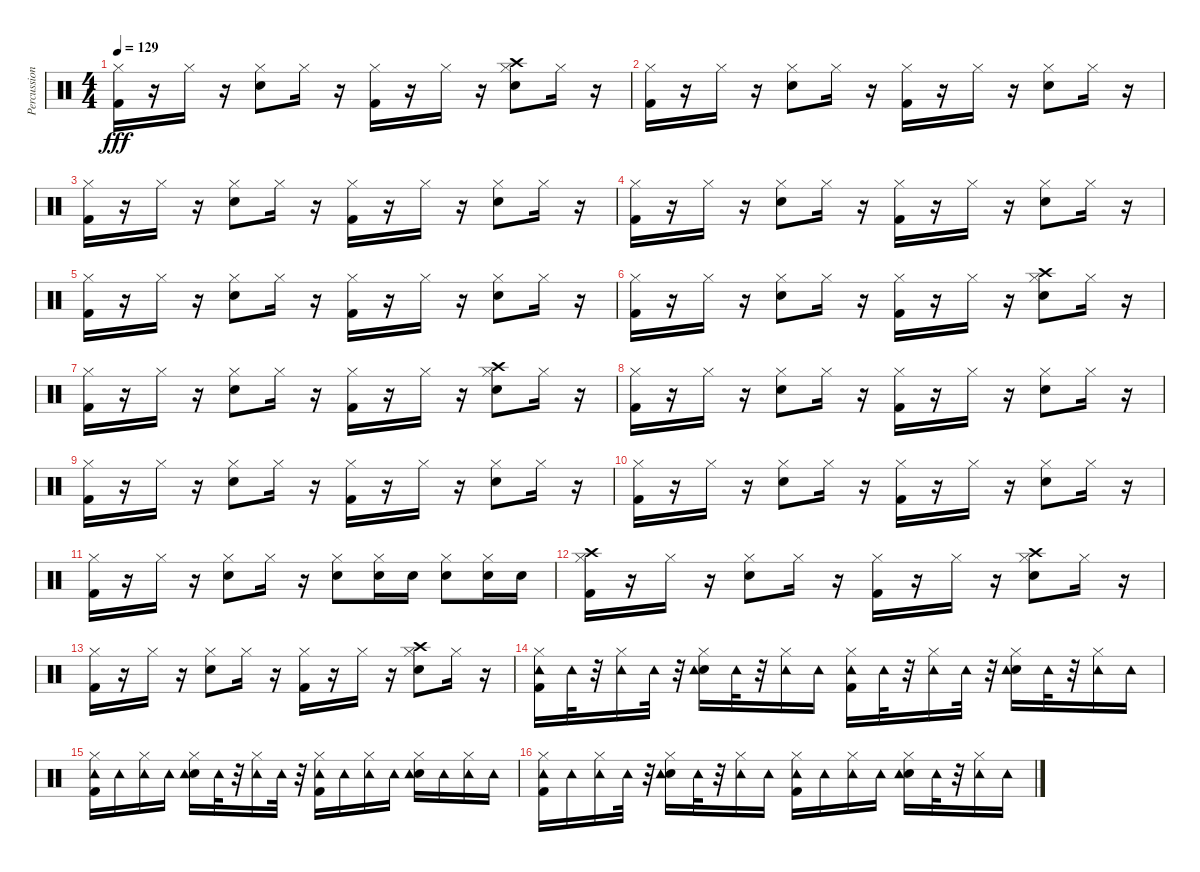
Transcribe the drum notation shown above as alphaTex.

\track ("Percussion" "Percussion") {instrument percussion}
\staff {score}
\articulation defaults
\ts (4 4)
\tempo 129
\clef neutral
\ks c
("Kick (hit) 2" "Hi-Hat (closed)").16{dy fff} r.16 "Hi-Hat (closed)".16 r.16 ("Snare (hit) 2" "Hi-Hat (closed)").8 "Hi-Hat (closed)".16 r.16 ("Kick (hit) 2" "Hi-Hat (closed)").16 r.16 "Hi-Hat (closed)".16 r.16 ("Snare (hit) 2" "Hi-Hat (closed)" "Crash high (hit)").8 "Hi-Hat (closed)".16 r.16 |
("Kick (hit) 2" "Hi-Hat (closed)").16 r.16 "Hi-Hat (closed)".16 r.16 ("Snare (hit) 2" "Hi-Hat (closed)").8 "Hi-Hat (closed)".16 r.16 ("Kick (hit) 2" "Hi-Hat (closed)").16 r.16 "Hi-Hat (closed)".16 r.16 ("Snare (hit) 2" "Hi-Hat (closed)").8 "Hi-Hat (closed)".16 r.16 |
("Kick (hit) 2" "Hi-Hat (closed)").16 r.16 "Hi-Hat (closed)".16 r.16 ("Snare (hit) 2" "Hi-Hat (closed)").8 "Hi-Hat (closed)".16 r.16 ("Kick (hit) 2" "Hi-Hat (closed)").16 r.16 "Hi-Hat (closed)".16 r.16 ("Snare (hit) 2" "Hi-Hat (closed)").8 "Hi-Hat (closed)".16 r.16 |
("Kick (hit) 2" "Hi-Hat (closed)").16 r.16 "Hi-Hat (closed)".16 r.16 ("Snare (hit) 2" "Hi-Hat (closed)").8 "Hi-Hat (closed)".16 r.16 ("Kick (hit) 2" "Hi-Hat (closed)").16 r.16 "Hi-Hat (closed)".16 r.16 ("Snare (hit) 2" "Hi-Hat (closed)").8 "Hi-Hat (closed)".16 r.16 |
("Kick (hit) 2" "Hi-Hat (closed)").16 r.16 "Hi-Hat (closed)".16 r.16 ("Snare (hit) 2" "Hi-Hat (closed)").8 "Hi-Hat (closed)".16 r.16 ("Kick (hit) 2" "Hi-Hat (closed)").16 r.16 "Hi-Hat (closed)".16 r.16 ("Snare (hit) 2" "Hi-Hat (closed)").8 "Hi-Hat (closed)".16 r.16 |
("Kick (hit) 2" "Hi-Hat (closed)").16 r.16 "Hi-Hat (closed)".16 r.16 ("Snare (hit) 2" "Hi-Hat (closed)").8 "Hi-Hat (closed)".16 r.16 ("Kick (hit) 2" "Hi-Hat (closed)").16 r.16 "Hi-Hat (closed)".16 r.16 ("Snare (hit) 2" "Hi-Hat (closed)" "Crash high (hit)").8 "Hi-Hat (closed)".16 r.16 |
("Kick (hit) 2" "Hi-Hat (closed)").16 r.16 "Hi-Hat (closed)".16 r.16 ("Snare (hit) 2" "Hi-Hat (closed)").8 "Hi-Hat (closed)".16 r.16 ("Kick (hit) 2" "Hi-Hat (closed)").16 r.16 "Hi-Hat (closed)".16 r.16 ("Snare (hit) 2" "Hi-Hat (closed)" "Crash high (hit)").8 "Hi-Hat (closed)".16 r.16 |
("Kick (hit) 2" "Hi-Hat (closed)").16 r.16 "Hi-Hat (closed)".16 r.16 ("Snare (hit) 2" "Hi-Hat (closed)").8 "Hi-Hat (closed)".16 r.16 ("Kick (hit) 2" "Hi-Hat (closed)").16 r.16 "Hi-Hat (closed)".16 r.16 ("Snare (hit) 2" "Hi-Hat (closed)").8 "Hi-Hat (closed)".16 r.16 |
("Kick (hit) 2" "Hi-Hat (closed)").16 r.16 "Hi-Hat (closed)".16 r.16 ("Snare (hit) 2" "Hi-Hat (closed)").8 "Hi-Hat (closed)".16 r.16 ("Kick (hit) 2" "Hi-Hat (closed)").16 r.16 "Hi-Hat (closed)".16 r.16 ("Snare (hit) 2" "Hi-Hat (closed)").8 "Hi-Hat (closed)".16 r.16 |
("Kick (hit) 2" "Hi-Hat (closed)").16 r.16 "Hi-Hat (closed)".16 r.16 ("Snare (hit) 2" "Hi-Hat (closed)").8 "Hi-Hat (closed)".16 r.16 ("Kick (hit) 2" "Hi-Hat (closed)").16 r.16 "Hi-Hat (closed)".16 r.16 ("Snare (hit) 2" "Hi-Hat (closed)").8 "Hi-Hat (closed)".16 r.16 |
("Kick (hit) 2" "Hi-Hat (closed)").16 r.16 "Hi-Hat (closed)".16 r.16 ("Snare (hit) 2" "Hi-Hat (closed)").8 "Hi-Hat (closed)".16 r.16 ("Snare (hit) 2" "Hi-Hat (closed)").8 ("Snare (hit) 2" "Hi-Hat (closed)").16 "Snare (hit) 2".16 ("Snare (hit) 2" "Hi-Hat (closed)").8 ("Snare (hit) 2" "Hi-Hat (closed)").16 "Snare (hit) 2".16 |
("Kick (hit) 2" "Hi-Hat (closed)" "Crash high (hit)").16 r.16 "Hi-Hat (closed)".16 r.16 ("Snare (hit) 2" "Hi-Hat (closed)").8 "Hi-Hat (closed)".16 r.16 ("Kick (hit) 2" "Hi-Hat (closed)").16 r.16 "Hi-Hat (closed)".16 r.16 ("Snare (hit) 2" "Hi-Hat (closed)" "Crash high (hit)").8 "Hi-Hat (closed)".16 r.16 |
("Kick (hit) 2" "Hi-Hat (closed)").16 r.16 "Hi-Hat (closed)".16 r.16 ("Snare (hit) 2" "Hi-Hat (closed)").8 "Hi-Hat (closed)".16 r.16 ("Kick (hit) 2" "Hi-Hat (closed)").16 r.16 "Hi-Hat (closed)".16 r.16 ("Snare (hit) 2" "Hi-Hat (closed)" "Crash high (hit)").8 "Hi-Hat (closed)".16 r.16 |
("Kick (hit) 2" "Tambourine (hit)" "Hi-Hat (closed)").16 "Tambourine (hit)".32 r.32 ("Tambourine (hit)" "Hi-Hat (closed)").16 "Tambourine (hit)".32 r.32 ("Snare (hit) 2" "Tambourine (hit)" "Hi-Hat (closed)").16 "Tambourine (hit)".32 r.32 ("Tambourine (hit)" "Hi-Hat (closed)").16 "Tambourine (hit)".16 ("Kick (hit) 2" "Tambourine (hit)" "Hi-Hat (closed)").16 "Tambourine (hit)".32 r.32 ("Tambourine (hit)" "Hi-Hat (closed)").16 "Tambourine (hit)".32 r.32 ("Snare (hit) 2" "Tambourine (hit)" "Hi-Hat (closed)").16 "Tambourine (hit)".32 r.32 ("Tambourine (hit)" "Hi-Hat (closed)").16 "Tambourine (hit)".16 |
("Kick (hit) 2" "Tambourine (hit)" "Hi-Hat (closed)").16 "Tambourine (hit)".16 ("Tambourine (hit)" "Hi-Hat (closed)").16 "Tambourine (hit)".16 ("Snare (hit) 2" "Tambourine (hit)" "Hi-Hat (closed)").16 "Tambourine (hit)".32 r.32 ("Tambourine (hit)" "Hi-Hat (closed)").16 "Tambourine (hit)".32 r.32 ("Kick (hit) 2" "Tambourine (hit)" "Hi-Hat (closed)").16 "Tambourine (hit)".16 ("Tambourine (hit)" "Hi-Hat (closed)").16 "Tambourine (hit)".16 ("Snare (hit) 2" "Tambourine (hit)" "Hi-Hat (closed)").16 "Tambourine (hit)".16 ("Tambourine (hit)" "Hi-Hat (closed)").16 "Tambourine (hit)".16 |
("Kick (hit) 2" "Tambourine (hit)" "Hi-Hat (closed)").16 "Tambourine (hit)".16 ("Tambourine (hit)" "Hi-Hat (closed)").16 "Tambourine (hit)".32 r.32 ("Snare (hit) 2" "Tambourine (hit)" "Hi-Hat (closed)").16 "Tambourine (hit)".32 r.32 ("Tambourine (hit)" "Hi-Hat (closed)").16 "Tambourine (hit)".16 ("Kick (hit) 2" "Tambourine (hit)" "Hi-Hat (closed)").16 "Tambourine (hit)".16 ("Tambourine (hit)" "Hi-Hat (closed)").16 "Tambourine (hit)".16 ("Snare (hit) 2" "Tambourine (hit)" "Hi-Hat (closed)").16 "Tambourine (hit)".32 r.32 ("Tambourine (hit)" "Hi-Hat (closed)").16 "Tambourine (hit)".16
